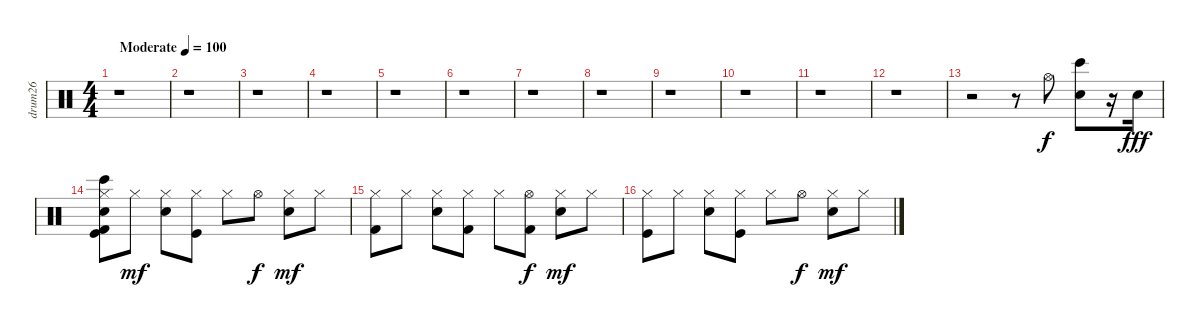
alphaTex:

\track ("drum26" "drum26") {instrument percussion}
\staff {score}
\articulation defaults
\ts (4 4)
\tempo (100 "Moderate")
\clef neutral
\ks c
r.1{dy f} |
r.1 |
r.1 |
r.1 |
r.1 |
r.1 |
r.1 |
r.1 |
r.1 |
r.1 |
r.1 |
r.1 |
r.2 r.8 "Hi-Hat (open)".8 ("Snare (hit) 2" "Bongo High (hit)").8 r.16 "Hand Clap (hit)".16{dy fff} |
("Kick (hit)" "Hi-Hat (closed)" "Bongo High (hit)" "Hand Clap (hit)" "Kick (hit) 2").8 "Hi-Hat (closed)".8{dy mf} ("Electric Snare (hit)" "Hi-Hat (closed)").8 ("Kick (hit)" "Hi-Hat (closed)").8 "Hi-Hat (closed)".8 "Hi-Hat (open)".8{dy f} ("Hi-Hat (closed)" "Electric Snare (hit)").8{dy mf} "Hi-Hat (closed)".8 |
("Hi-Hat (closed)" "Kick (hit) 2").8 "Hi-Hat (closed)".8 ("Electric Snare (hit)" "Hi-Hat (closed)").8 ("Kick (hit) 2" "Hi-Hat (closed)").8 "Hi-Hat (closed)".8 ("Hi-Hat (open)" "Kick (hit) 2").8{dy f} ("Hi-Hat (closed)" "Electric Snare (hit)").8{dy mf} "Hi-Hat (closed)".8 |
("Kick (hit)" "Hi-Hat (closed)").8 "Hi-Hat (closed)".8 ("Electric Snare (hit)" "Hi-Hat (closed)").8 ("Hi-Hat (closed)" "Kick (hit)").8 "Hi-Hat (closed)".8 "Hi-Hat (open)".8{dy f} ("Hi-Hat (closed)" "Electric Snare (hit)").8{dy mf} "Hi-Hat (closed)".8
